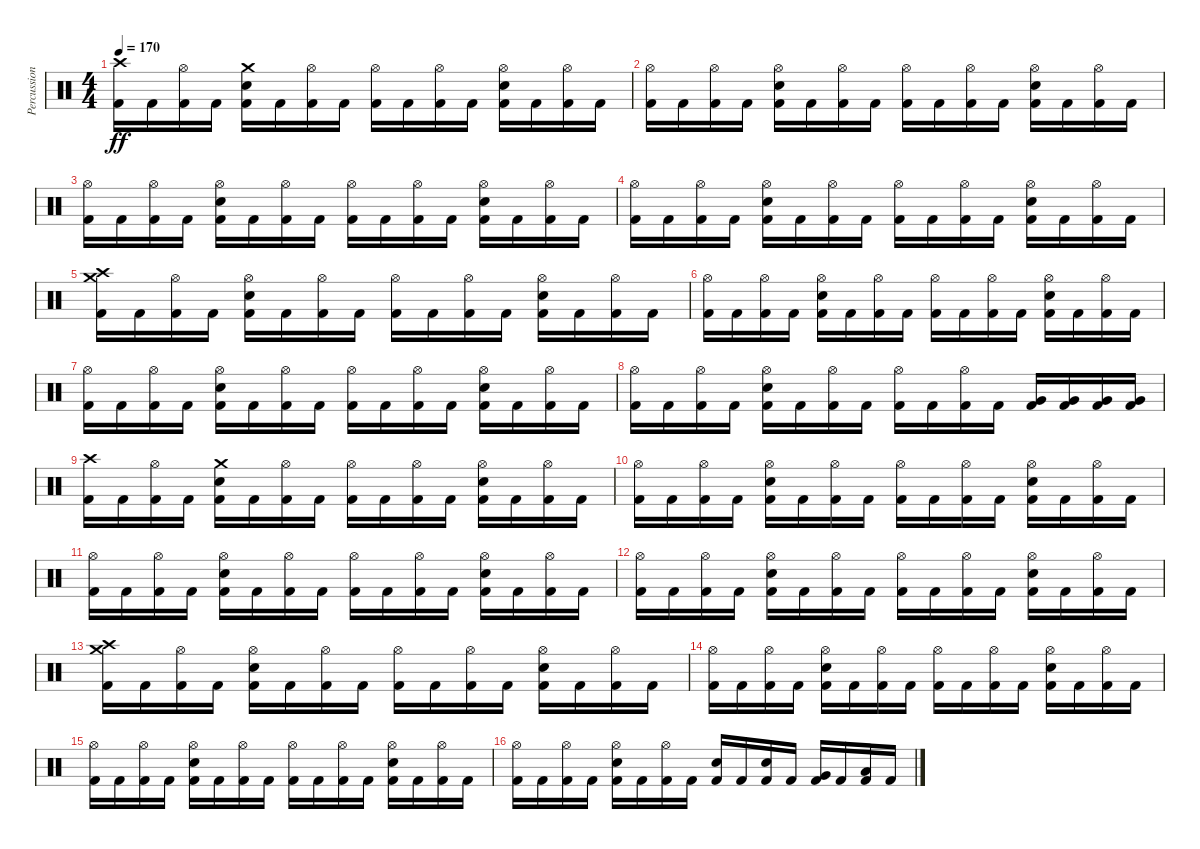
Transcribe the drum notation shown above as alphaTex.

\track ("Percussion" "Percussion") {instrument percussion}
\staff {score}
\articulation defaults
\ts (4 4)
\tempo 170
\clef neutral
\ks c
("Kick (hit) 2" "Crash high (hit)").16{dy ff} "Kick (hit) 2".16 ("Kick (hit) 2" "Hi-Hat (open)").16 "Kick (hit) 2".16 ("Kick (hit) 2" "Electric Snare (hit)" "Crash medium (hit)").16 "Kick (hit) 2".16 ("Kick (hit) 2" "Hi-Hat (open)").16 "Kick (hit) 2".16 ("Kick (hit) 2" "Hi-Hat (open)").16 "Kick (hit) 2".16 ("Kick (hit) 2" "Hi-Hat (open)").16 "Kick (hit) 2".16 ("Kick (hit) 2" "Electric Snare (hit)" "Hi-Hat (open)").16 "Kick (hit) 2".16 ("Kick (hit) 2" "Hi-Hat (open)").16 "Kick (hit) 2".16 |
("Kick (hit) 2" "Hi-Hat (open)").16 "Kick (hit) 2".16 ("Kick (hit) 2" "Hi-Hat (open)").16 "Kick (hit) 2".16 ("Kick (hit) 2" "Electric Snare (hit)" "Hi-Hat (open)").16 "Kick (hit) 2".16 ("Kick (hit) 2" "Hi-Hat (open)").16 "Kick (hit) 2".16 ("Kick (hit) 2" "Hi-Hat (open)").16 "Kick (hit) 2".16 ("Kick (hit) 2" "Hi-Hat (open)").16 "Kick (hit) 2".16 ("Kick (hit) 2" "Electric Snare (hit)" "Hi-Hat (open)").16 "Kick (hit) 2".16 ("Kick (hit) 2" "Hi-Hat (open)").16 "Kick (hit) 2".16 |
("Kick (hit) 2" "Hi-Hat (open)").16 "Kick (hit) 2".16 ("Kick (hit) 2" "Hi-Hat (open)").16 "Kick (hit) 2".16 ("Kick (hit) 2" "Electric Snare (hit)" "Hi-Hat (open)").16 "Kick (hit) 2".16 ("Kick (hit) 2" "Hi-Hat (open)").16 "Kick (hit) 2".16 ("Kick (hit) 2" "Hi-Hat (open)").16 "Kick (hit) 2".16 ("Kick (hit) 2" "Hi-Hat (open)").16 "Kick (hit) 2".16 ("Kick (hit) 2" "Electric Snare (hit)" "Hi-Hat (open)").16 "Kick (hit) 2".16 ("Kick (hit) 2" "Hi-Hat (open)").16 "Kick (hit) 2".16 |
("Kick (hit) 2" "Hi-Hat (open)").16 "Kick (hit) 2".16 ("Kick (hit) 2" "Hi-Hat (open)").16 "Kick (hit) 2".16 ("Kick (hit) 2" "Electric Snare (hit)" "Hi-Hat (open)").16 "Kick (hit) 2".16 ("Kick (hit) 2" "Hi-Hat (open)").16 "Kick (hit) 2".16 ("Kick (hit) 2" "Hi-Hat (open)").16 "Kick (hit) 2".16 ("Kick (hit) 2" "Hi-Hat (open)").16 "Kick (hit) 2".16 ("Kick (hit) 2" "Electric Snare (hit)" "Hi-Hat (open)").16 "Kick (hit) 2".16 ("Kick (hit) 2" "Hi-Hat (open)").16 "Kick (hit) 2".16 |
("Kick (hit) 2" "Crash medium (hit)" "Crash high (hit)").16 "Kick (hit) 2".16 ("Kick (hit) 2" "Hi-Hat (open)").16 "Kick (hit) 2".16 ("Kick (hit) 2" "Electric Snare (hit)" "Hi-Hat (open)").16 "Kick (hit) 2".16 ("Kick (hit) 2" "Hi-Hat (open)").16 "Kick (hit) 2".16 ("Kick (hit) 2" "Hi-Hat (open)").16 "Kick (hit) 2".16 ("Kick (hit) 2" "Hi-Hat (open)").16 "Kick (hit) 2".16 ("Kick (hit) 2" "Electric Snare (hit)" "Hi-Hat (open)").16 "Kick (hit) 2".16 ("Kick (hit) 2" "Hi-Hat (open)").16 "Kick (hit) 2".16 |
("Kick (hit) 2" "Hi-Hat (open)").16 "Kick (hit) 2".16 ("Kick (hit) 2" "Hi-Hat (open)").16 "Kick (hit) 2".16 ("Kick (hit) 2" "Electric Snare (hit)" "Hi-Hat (open)").16 "Kick (hit) 2".16 ("Kick (hit) 2" "Hi-Hat (open)").16 "Kick (hit) 2".16 ("Kick (hit) 2" "Hi-Hat (open)").16 "Kick (hit) 2".16 ("Kick (hit) 2" "Hi-Hat (open)").16 "Kick (hit) 2".16 ("Kick (hit) 2" "Electric Snare (hit)" "Hi-Hat (open)").16 "Kick (hit) 2".16 ("Kick (hit) 2" "Hi-Hat (open)").16 "Kick (hit) 2".16 |
("Kick (hit) 2" "Hi-Hat (open)").16 "Kick (hit) 2".16 ("Kick (hit) 2" "Hi-Hat (open)").16 "Kick (hit) 2".16 ("Kick (hit) 2" "Electric Snare (hit)" "Hi-Hat (open)").16 "Kick (hit) 2".16 ("Kick (hit) 2" "Hi-Hat (open)").16 "Kick (hit) 2".16 ("Kick (hit) 2" "Hi-Hat (open)").16 "Kick (hit) 2".16 ("Kick (hit) 2" "Hi-Hat (open)").16 "Kick (hit) 2".16 ("Kick (hit) 2" "Electric Snare (hit)" "Hi-Hat (open)").16 "Kick (hit) 2".16 ("Kick (hit) 2" "Hi-Hat (open)").16 "Kick (hit) 2".16 |
("Kick (hit) 2" "Hi-Hat (open)").16 "Kick (hit) 2".16 ("Kick (hit) 2" "Hi-Hat (open)").16 "Kick (hit) 2".16 ("Kick (hit) 2" "Electric Snare (hit)" "Hi-Hat (open)").16 "Kick (hit) 2".16 ("Kick (hit) 2" "Hi-Hat (open)").16 "Kick (hit) 2".16 ("Kick (hit) 2" "Hi-Hat (open)").16 "Kick (hit) 2".16 ("Kick (hit) 2" "Hi-Hat (open)").16 "Kick (hit) 2".16 ("Kick (hit) 2" "Very Low Tom (hit)").16 ("Kick (hit) 2" "Very Low Tom (hit)").16 ("Kick (hit) 2" "Very Low Tom (hit)").16 ("Kick (hit) 2" "Very Low Tom (hit)").16 |
("Kick (hit) 2" "Crash high (hit)").16 "Kick (hit) 2".16 ("Kick (hit) 2" "Hi-Hat (open)").16 "Kick (hit) 2".16 ("Kick (hit) 2" "Electric Snare (hit)" "Crash medium (hit)").16 "Kick (hit) 2".16 ("Kick (hit) 2" "Hi-Hat (open)").16 "Kick (hit) 2".16 ("Kick (hit) 2" "Hi-Hat (open)").16 "Kick (hit) 2".16 ("Kick (hit) 2" "Hi-Hat (open)").16 "Kick (hit) 2".16 ("Kick (hit) 2" "Electric Snare (hit)" "Hi-Hat (open)").16 "Kick (hit) 2".16 ("Kick (hit) 2" "Hi-Hat (open)").16 "Kick (hit) 2".16 |
("Kick (hit) 2" "Hi-Hat (open)").16 "Kick (hit) 2".16 ("Kick (hit) 2" "Hi-Hat (open)").16 "Kick (hit) 2".16 ("Kick (hit) 2" "Electric Snare (hit)" "Hi-Hat (open)").16 "Kick (hit) 2".16 ("Kick (hit) 2" "Hi-Hat (open)").16 "Kick (hit) 2".16 ("Kick (hit) 2" "Hi-Hat (open)").16 "Kick (hit) 2".16 ("Kick (hit) 2" "Hi-Hat (open)").16 "Kick (hit) 2".16 ("Kick (hit) 2" "Electric Snare (hit)" "Hi-Hat (open)").16 "Kick (hit) 2".16 ("Kick (hit) 2" "Hi-Hat (open)").16 "Kick (hit) 2".16 |
("Kick (hit) 2" "Hi-Hat (open)").16 "Kick (hit) 2".16 ("Kick (hit) 2" "Hi-Hat (open)").16 "Kick (hit) 2".16 ("Kick (hit) 2" "Electric Snare (hit)" "Hi-Hat (open)").16 "Kick (hit) 2".16 ("Kick (hit) 2" "Hi-Hat (open)").16 "Kick (hit) 2".16 ("Kick (hit) 2" "Hi-Hat (open)").16 "Kick (hit) 2".16 ("Kick (hit) 2" "Hi-Hat (open)").16 "Kick (hit) 2".16 ("Kick (hit) 2" "Electric Snare (hit)" "Hi-Hat (open)").16 "Kick (hit) 2".16 ("Kick (hit) 2" "Hi-Hat (open)").16 "Kick (hit) 2".16 |
("Kick (hit) 2" "Hi-Hat (open)").16 "Kick (hit) 2".16 ("Kick (hit) 2" "Hi-Hat (open)").16 "Kick (hit) 2".16 ("Kick (hit) 2" "Electric Snare (hit)" "Hi-Hat (open)").16 "Kick (hit) 2".16 ("Kick (hit) 2" "Hi-Hat (open)").16 "Kick (hit) 2".16 ("Kick (hit) 2" "Hi-Hat (open)").16 "Kick (hit) 2".16 ("Kick (hit) 2" "Hi-Hat (open)").16 "Kick (hit) 2".16 ("Kick (hit) 2" "Electric Snare (hit)" "Hi-Hat (open)").16 "Kick (hit) 2".16 ("Kick (hit) 2" "Hi-Hat (open)").16 "Kick (hit) 2".16 |
("Kick (hit) 2" "Crash medium (hit)" "Crash high (hit)").16 "Kick (hit) 2".16 ("Kick (hit) 2" "Hi-Hat (open)").16 "Kick (hit) 2".16 ("Kick (hit) 2" "Electric Snare (hit)" "Hi-Hat (open)").16 "Kick (hit) 2".16 ("Kick (hit) 2" "Hi-Hat (open)").16 "Kick (hit) 2".16 ("Kick (hit) 2" "Hi-Hat (open)").16 "Kick (hit) 2".16 ("Kick (hit) 2" "Hi-Hat (open)").16 "Kick (hit) 2".16 ("Kick (hit) 2" "Electric Snare (hit)" "Hi-Hat (open)").16 "Kick (hit) 2".16 ("Kick (hit) 2" "Hi-Hat (open)").16 "Kick (hit) 2".16 |
("Kick (hit) 2" "Hi-Hat (open)").16 "Kick (hit) 2".16 ("Kick (hit) 2" "Hi-Hat (open)").16 "Kick (hit) 2".16 ("Kick (hit) 2" "Electric Snare (hit)" "Hi-Hat (open)").16 "Kick (hit) 2".16 ("Kick (hit) 2" "Hi-Hat (open)").16 "Kick (hit) 2".16 ("Kick (hit) 2" "Hi-Hat (open)").16 "Kick (hit) 2".16 ("Kick (hit) 2" "Hi-Hat (open)").16 "Kick (hit) 2".16 ("Kick (hit) 2" "Electric Snare (hit)" "Hi-Hat (open)").16 "Kick (hit) 2".16 ("Kick (hit) 2" "Hi-Hat (open)").16 "Kick (hit) 2".16 |
("Kick (hit) 2" "Hi-Hat (open)").16 "Kick (hit) 2".16 ("Kick (hit) 2" "Hi-Hat (open)").16 "Kick (hit) 2".16 ("Kick (hit) 2" "Electric Snare (hit)" "Hi-Hat (open)").16 "Kick (hit) 2".16 ("Kick (hit) 2" "Hi-Hat (open)").16 "Kick (hit) 2".16 ("Kick (hit) 2" "Hi-Hat (open)").16 "Kick (hit) 2".16 ("Kick (hit) 2" "Hi-Hat (open)").16 "Kick (hit) 2".16 ("Kick (hit) 2" "Electric Snare (hit)" "Hi-Hat (open)").16 "Kick (hit) 2".16 ("Kick (hit) 2" "Hi-Hat (open)").16 "Kick (hit) 2".16 |
("Kick (hit) 2" "Hi-Hat (open)").16 "Kick (hit) 2".16 ("Kick (hit) 2" "Hi-Hat (open)").16 "Kick (hit) 2".16 ("Kick (hit) 2" "Electric Snare (hit)" "Hi-Hat (open)").16 "Kick (hit) 2".16 ("Kick (hit) 2" "Hi-Hat (open)").16 "Kick (hit) 2".16 ("Kick (hit) 2" "Electric Snare (hit)").16 "Kick (hit) 2".16 ("Kick (hit) 2" "Electric Snare (hit)").16 "Kick (hit) 2".16 ("Kick (hit) 2" "Very Low Tom (hit)").16 "Kick (hit) 2".16 ("Kick (hit) 2" "Low Floor Tom (hit)").16 "Kick (hit) 2".16
